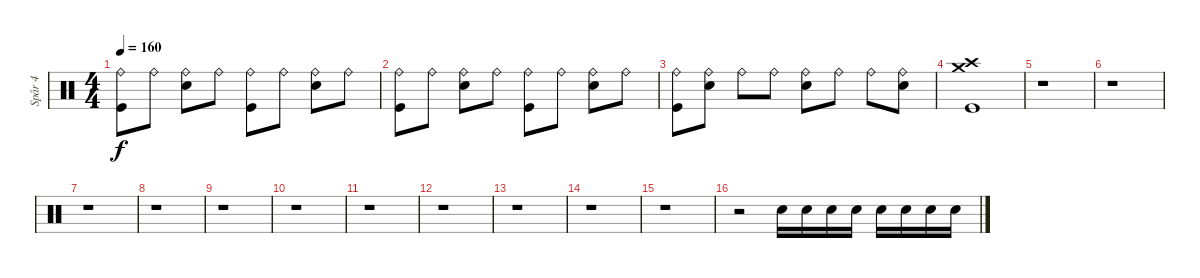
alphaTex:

\track ("Spår 4" "Spår 4") {instrument percussion}
\staff {score}
\articulation defaults
\ts (4 4)
\tempo 160
\clef neutral
\ks c
("Ride (bell)" "Kick (hit)").8{dy f} "Ride (bell)".8 ("Ride (bell)" "Snare (hit) 2").8 "Ride (bell)".8 ("Ride (bell)" "Kick (hit)").8 "Ride (bell)".8 ("Ride (bell)" "Snare (hit) 2").8 "Ride (bell)".8 |
("Ride (bell)" "Kick (hit)").8 "Ride (bell)".8 ("Ride (bell)" "Snare (hit) 2").8 "Ride (bell)".8 ("Ride (bell)" "Kick (hit)").8 "Ride (bell)".8 ("Ride (bell)" "Snare (hit) 2").8 "Ride (bell)".8 |
("Ride (bell)" "Kick (hit)").8 ("Ride (bell)" "Snare (hit) 2").8 "Ride (bell)".8 "Ride (bell)".8 ("Ride (bell)" "Snare (hit) 2").8 "Ride (bell)".8 "Ride (bell)".8 ("Ride (bell)" "Snare (hit) 2").8 |
("Crash medium (hit)" "Crash high (hit)" "Kick (hit)").1 |
r.1 |
r.1 |
r.1 |
r.1 |
r.1 |
r.1 |
r.1 |
r.1 |
r.1 |
r.1 |
r.1 |
r.2 "Snare (hit) 2".16 "Snare (hit) 2".16 "Snare (hit) 2".16 "Snare (hit) 2".16 "Snare (hit) 2".16 "Snare (hit) 2".16 "Snare (hit) 2".16 "Snare (hit) 2".16
